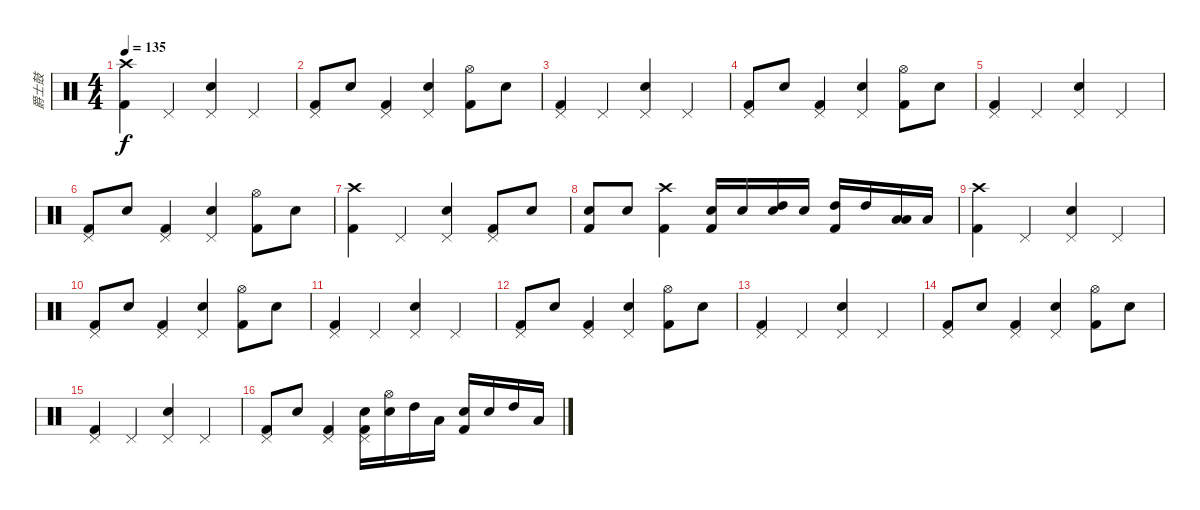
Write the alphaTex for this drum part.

\track ("爵士鼓" "爵士鼓") {instrument percussion}
\staff {score}
\articulation defaults
\ts (4 4)
\tempo 135
\clef neutral
\ks c
("Crash high (hit)" "Kick (hit) 2").4{dy f} "Pedal Hi-Hat (hit)".4 ("Pedal Hi-Hat (hit)" "Snare (hit) 2").4 "Pedal Hi-Hat (hit)".4 |
("Pedal Hi-Hat (hit)" "Kick (hit) 2").8 "Snare (hit) 2".8 ("Pedal Hi-Hat (hit)" "Kick (hit) 2").4 ("Pedal Hi-Hat (hit)" "Snare (hit) 2").4 ("Hi-Hat (open)" "Kick (hit) 2").8 "Snare (hit) 2".8 |
("Pedal Hi-Hat (hit)" "Kick (hit) 2").4 "Pedal Hi-Hat (hit)".4 ("Pedal Hi-Hat (hit)" "Snare (hit) 2").4 "Pedal Hi-Hat (hit)".4 |
("Pedal Hi-Hat (hit)" "Kick (hit) 2").8 "Snare (hit) 2".8 ("Pedal Hi-Hat (hit)" "Kick (hit) 2").4 ("Pedal Hi-Hat (hit)" "Snare (hit) 2").4 ("Hi-Hat (open)" "Kick (hit) 2").8 "Snare (hit) 2".8 |
("Pedal Hi-Hat (hit)" "Kick (hit) 2").4 "Pedal Hi-Hat (hit)".4 ("Pedal Hi-Hat (hit)" "Snare (hit) 2").4 "Pedal Hi-Hat (hit)".4 |
("Pedal Hi-Hat (hit)" "Kick (hit) 2").8 "Snare (hit) 2".8 ("Pedal Hi-Hat (hit)" "Kick (hit) 2").4 ("Pedal Hi-Hat (hit)" "Snare (hit) 2").4 ("Hi-Hat (open)" "Kick (hit) 2").8 "Snare (hit) 2".8 |
("Crash high (hit)" "Kick (hit) 2").4 "Pedal Hi-Hat (hit)".4 ("Pedal Hi-Hat (hit)" "Snare (hit) 2").4 ("Pedal Hi-Hat (hit)" "Kick (hit) 2").8 "Electric Snare (hit)".8 |
("Snare (hit) 2" "Kick (hit) 2").8 "Snare (hit) 2".8 ("Crash high (hit)" "Kick (hit) 2").4 ("Electric Snare (hit)" "Kick (hit) 2").16 "Electric Snare (hit)".16 ("Snare (hit) 2" "High Tom (hit)").16 "Snare (hit) 2".16 ("High Tom (hit)" "Kick (hit) 2").16 "High Tom (hit)".16 ("Low Tom (hit)" "Low Tom (hit)").16 "Low Tom (hit)".16 |
("Crash high (hit)" "Kick (hit) 2").4 "Pedal Hi-Hat (hit)".4 ("Pedal Hi-Hat (hit)" "Snare (hit) 2").4 "Pedal Hi-Hat (hit)".4 |
("Pedal Hi-Hat (hit)" "Kick (hit) 2").8 "Snare (hit) 2".8 ("Pedal Hi-Hat (hit)" "Kick (hit) 2").4 ("Pedal Hi-Hat (hit)" "Snare (hit) 2").4 ("Hi-Hat (open)" "Kick (hit) 2").8 "Snare (hit) 2".8 |
("Pedal Hi-Hat (hit)" "Kick (hit) 2").4 "Pedal Hi-Hat (hit)".4 ("Pedal Hi-Hat (hit)" "Snare (hit) 2").4 "Pedal Hi-Hat (hit)".4 |
("Pedal Hi-Hat (hit)" "Kick (hit) 2").8 "Snare (hit) 2".8 ("Pedal Hi-Hat (hit)" "Kick (hit) 2").4 ("Pedal Hi-Hat (hit)" "Snare (hit) 2").4 ("Hi-Hat (open)" "Kick (hit) 2").8 "Snare (hit) 2".8 |
("Pedal Hi-Hat (hit)" "Kick (hit) 2").4 "Pedal Hi-Hat (hit)".4 ("Pedal Hi-Hat (hit)" "Snare (hit) 2").4 "Pedal Hi-Hat (hit)".4 |
("Pedal Hi-Hat (hit)" "Kick (hit) 2").8 "Snare (hit) 2".8 ("Pedal Hi-Hat (hit)" "Kick (hit) 2").4 ("Pedal Hi-Hat (hit)" "Snare (hit) 2").4 ("Hi-Hat (open)" "Kick (hit) 2").8 "Snare (hit) 2".8 |
("Pedal Hi-Hat (hit)" "Kick (hit) 2").4 "Pedal Hi-Hat (hit)".4 ("Pedal Hi-Hat (hit)" "Snare (hit) 2").4 "Pedal Hi-Hat (hit)".4 |
("Pedal Hi-Hat (hit)" "Kick (hit) 2").8 "Snare (hit) 2".8 ("Pedal Hi-Hat (hit)" "Kick (hit) 2").4 ("Pedal Hi-Hat (hit)" "Electric Snare (hit)" "Kick (hit) 2").16 ("Hi-Hat (open)" "Snare (hit) 2").16 "High Tom (hit)".16 "Low Tom (hit)".16 ("Electric Snare (hit)" "Kick (hit) 2").16 "Snare (hit) 2".16 "High Tom (hit)".16 "Low Tom (hit)".16
